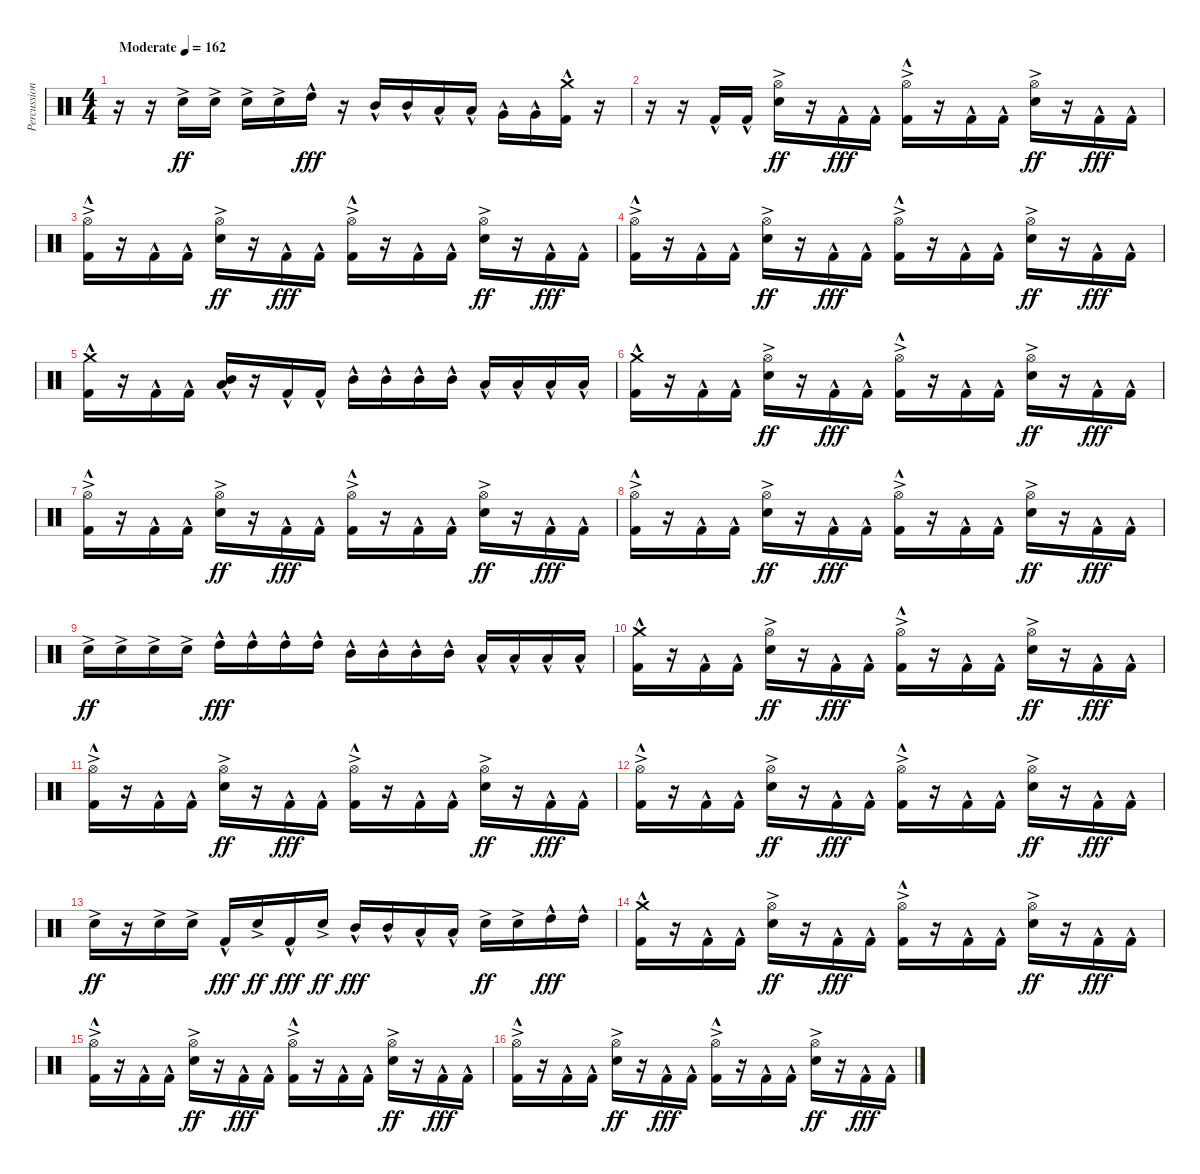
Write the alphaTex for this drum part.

\track ("Percussion" "Percussion") {instrument percussion}
\staff {score}
\articulation defaults
\ts (4 4)
\tempo (162 "Moderate")
\clef neutral
\ks c
r.16{dy ff} r.16 "Snare (hit) 2"{ac}.16 "Snare (hit) 2"{ac}.16 "Snare (hit) 2"{ac}.16 "Snare (hit) 2"{ac}.16 "High Tom (hit)"{hac}.16{dy fff} r.16 "Mid Tom (hit)"{hac}.16 "Mid Tom (hit)"{hac}.16 "Low Tom (hit)"{hac}.16 "Low Tom (hit)"{hac}.16 "Very Low Tom (hit)"{hac}.16 "Very Low Tom (hit)"{hac}.16 ("Crash medium (hit)"{hac} "Kick (hit) 2"{hac}).16 r.16 |
r.16 r.16 "Kick (hit) 2"{hac}.16 "Kick (hit) 2"{hac}.16 ("Hi-Hat (open)"{ac} "Snare (hit) 2"{ac}).16{dy ff} r.16 "Kick (hit) 2"{hac}.16{dy fff} "Kick (hit) 2"{hac}.16 ("Hi-Hat (open)"{ac} "Kick (hit) 2"{hac}).16 r.16 "Kick (hit) 2"{hac}.16 "Kick (hit) 2"{hac}.16 ("Hi-Hat (open)"{ac} "Snare (hit) 2"{ac}).16{dy ff} r.16 "Kick (hit) 2"{hac}.16{dy fff} "Kick (hit) 2"{hac}.16 |
("Hi-Hat (open)"{ac} "Kick (hit) 2"{hac}).16 r.16 "Kick (hit) 2"{hac}.16 "Kick (hit) 2"{hac}.16 ("Hi-Hat (open)"{ac} "Snare (hit) 2"{ac}).16{dy ff} r.16 "Kick (hit) 2"{hac}.16{dy fff} "Kick (hit) 2"{hac}.16 ("Hi-Hat (open)"{ac} "Kick (hit) 2"{hac}).16 r.16 "Kick (hit) 2"{hac}.16 "Kick (hit) 2"{hac}.16 ("Hi-Hat (open)"{ac} "Snare (hit) 2"{ac}).16{dy ff} r.16 "Kick (hit) 2"{hac}.16{dy fff} "Kick (hit) 2"{hac}.16 |
("Hi-Hat (open)"{ac} "Kick (hit) 2"{hac}).16 r.16 "Kick (hit) 2"{hac}.16 "Kick (hit) 2"{hac}.16 ("Hi-Hat (open)"{ac} "Snare (hit) 2"{ac}).16{dy ff} r.16 "Kick (hit) 2"{hac}.16{dy fff} "Kick (hit) 2"{hac}.16 ("Hi-Hat (open)"{ac} "Kick (hit) 2"{hac}).16 r.16 "Kick (hit) 2"{hac}.16 "Kick (hit) 2"{hac}.16 ("Hi-Hat (open)"{ac} "Snare (hit) 2"{ac}).16{dy ff} r.16 "Kick (hit) 2"{hac}.16{dy fff} "Kick (hit) 2"{hac}.16 |
("Crash medium (hit)"{hac} "Kick (hit) 2"{hac}).16 r.16 "Kick (hit) 2"{hac}.16 "Kick (hit) 2"{hac}.16 ("Low Tom (hit)"{hac} "Mid Tom (hit)"{hac}).16 r.16 "Kick (hit) 2"{hac}.16 "Kick (hit) 2"{hac}.16 "Mid Tom (hit)"{hac}.16 "Mid Tom (hit)"{hac}.16 "Mid Tom (hit)"{hac}.16 "Mid Tom (hit)"{hac}.16 "Low Tom (hit)"{hac}.16 "Low Tom (hit)"{hac}.16 "Low Tom (hit)"{hac}.16 "Low Tom (hit)"{hac}.16 |
("Crash medium (hit)"{hac} "Kick (hit) 2"{hac}).16 r.16 "Kick (hit) 2"{hac}.16 "Kick (hit) 2"{hac}.16 ("Hi-Hat (open)"{ac} "Snare (hit) 2"{ac}).16{dy ff} r.16 "Kick (hit) 2"{hac}.16{dy fff} "Kick (hit) 2"{hac}.16 ("Hi-Hat (open)"{ac} "Kick (hit) 2"{hac}).16 r.16 "Kick (hit) 2"{hac}.16 "Kick (hit) 2"{hac}.16 ("Hi-Hat (open)"{ac} "Snare (hit) 2"{ac}).16{dy ff} r.16 "Kick (hit) 2"{hac}.16{dy fff} "Kick (hit) 2"{hac}.16 |
("Hi-Hat (open)"{ac} "Kick (hit) 2"{hac}).16 r.16 "Kick (hit) 2"{hac}.16 "Kick (hit) 2"{hac}.16 ("Hi-Hat (open)"{ac} "Snare (hit) 2"{ac}).16{dy ff} r.16 "Kick (hit) 2"{hac}.16{dy fff} "Kick (hit) 2"{hac}.16 ("Hi-Hat (open)"{ac} "Kick (hit) 2"{hac}).16 r.16 "Kick (hit) 2"{hac}.16 "Kick (hit) 2"{hac}.16 ("Hi-Hat (open)"{ac} "Snare (hit) 2"{ac}).16{dy ff} r.16 "Kick (hit) 2"{hac}.16{dy fff} "Kick (hit) 2"{hac}.16 |
("Hi-Hat (open)"{ac} "Kick (hit) 2"{hac}).16 r.16 "Kick (hit) 2"{hac}.16 "Kick (hit) 2"{hac}.16 ("Hi-Hat (open)"{ac} "Snare (hit) 2"{ac}).16{dy ff} r.16 "Kick (hit) 2"{hac}.16{dy fff} "Kick (hit) 2"{hac}.16 ("Hi-Hat (open)"{ac} "Kick (hit) 2"{hac}).16 r.16 "Kick (hit) 2"{hac}.16 "Kick (hit) 2"{hac}.16 ("Hi-Hat (open)"{ac} "Snare (hit) 2"{ac}).16{dy ff} r.16 "Kick (hit) 2"{hac}.16{dy fff} "Kick (hit) 2"{hac}.16 |
"Snare (hit) 2"{ac}.16{dy ff} "Snare (hit) 2"{ac}.16 "Snare (hit) 2"{ac}.16 "Snare (hit) 2"{ac}.16 "High Tom (hit)"{hac}.16{dy fff} "High Tom (hit)"{hac}.16 "High Tom (hit)"{hac}.16 "High Tom (hit)"{hac}.16 "Mid Tom (hit)"{hac}.16 "Mid Tom (hit)"{hac}.16 "Mid Tom (hit)"{hac}.16 "Mid Tom (hit)"{hac}.16 "Low Tom (hit)"{hac}.16 "Low Tom (hit)"{hac}.16 "Low Tom (hit)"{hac}.16 "Low Tom (hit)"{hac}.16 |
("Crash medium (hit)"{hac} "Kick (hit) 2"{hac}).16 r.16 "Kick (hit) 2"{hac}.16 "Kick (hit) 2"{hac}.16 ("Hi-Hat (open)"{ac} "Snare (hit) 2"{ac}).16{dy ff} r.16 "Kick (hit) 2"{hac}.16{dy fff} "Kick (hit) 2"{hac}.16 ("Hi-Hat (open)"{ac} "Kick (hit) 2"{hac}).16 r.16 "Kick (hit) 2"{hac}.16 "Kick (hit) 2"{hac}.16 ("Hi-Hat (open)"{ac} "Snare (hit) 2"{ac}).16{dy ff} r.16 "Kick (hit) 2"{hac}.16{dy fff} "Kick (hit) 2"{hac}.16 |
("Hi-Hat (open)"{ac} "Kick (hit) 2"{hac}).16 r.16 "Kick (hit) 2"{hac}.16 "Kick (hit) 2"{hac}.16 ("Hi-Hat (open)"{ac} "Snare (hit) 2"{ac}).16{dy ff} r.16 "Kick (hit) 2"{hac}.16{dy fff} "Kick (hit) 2"{hac}.16 ("Hi-Hat (open)"{ac} "Kick (hit) 2"{hac}).16 r.16 "Kick (hit) 2"{hac}.16 "Kick (hit) 2"{hac}.16 ("Hi-Hat (open)"{ac} "Snare (hit) 2"{ac}).16{dy ff} r.16 "Kick (hit) 2"{hac}.16{dy fff} "Kick (hit) 2"{hac}.16 |
("Hi-Hat (open)"{ac} "Kick (hit) 2"{hac}).16 r.16 "Kick (hit) 2"{hac}.16 "Kick (hit) 2"{hac}.16 ("Hi-Hat (open)"{ac} "Snare (hit) 2"{ac}).16{dy ff} r.16 "Kick (hit) 2"{hac}.16{dy fff} "Kick (hit) 2"{hac}.16 ("Hi-Hat (open)"{ac} "Kick (hit) 2"{hac}).16 r.16 "Kick (hit) 2"{hac}.16 "Kick (hit) 2"{hac}.16 ("Hi-Hat (open)"{ac} "Snare (hit) 2"{ac}).16{dy ff} r.16 "Kick (hit) 2"{hac}.16{dy fff} "Kick (hit) 2"{hac}.16 |
"Snare (hit) 2"{ac}.16{dy ff} r.16 "Snare (hit) 2"{ac}.16 "Snare (hit) 2"{ac}.16 "Kick (hit) 2"{hac}.16{dy fff} "Snare (hit) 2"{ac}.16{dy ff} "Kick (hit) 2"{hac}.16{dy fff} "Snare (hit) 2"{ac}.16{dy ff} "Mid Tom (hit)"{hac}.16{dy fff} "Mid Tom (hit)"{hac}.16 "Low Tom (hit)"{hac}.16 "Low Tom (hit)"{hac}.16 "Snare (hit) 2"{ac}.16{dy ff} "Snare (hit) 2"{ac}.16 "High Tom (hit)"{hac}.16{dy fff} "High Tom (hit)"{hac}.16 |
("Crash medium (hit)"{hac} "Kick (hit) 2"{hac}).16 r.16 "Kick (hit) 2"{hac}.16 "Kick (hit) 2"{hac}.16 ("Hi-Hat (open)"{ac} "Snare (hit) 2"{ac}).16{dy ff} r.16 "Kick (hit) 2"{hac}.16{dy fff} "Kick (hit) 2"{hac}.16 ("Hi-Hat (open)"{ac} "Kick (hit) 2"{hac}).16 r.16 "Kick (hit) 2"{hac}.16 "Kick (hit) 2"{hac}.16 ("Hi-Hat (open)"{ac} "Snare (hit) 2"{ac}).16{dy ff} r.16 "Kick (hit) 2"{hac}.16{dy fff} "Kick (hit) 2"{hac}.16 |
("Hi-Hat (open)"{ac} "Kick (hit) 2"{hac}).16 r.16 "Kick (hit) 2"{hac}.16 "Kick (hit) 2"{hac}.16 ("Hi-Hat (open)"{ac} "Snare (hit) 2"{ac}).16{dy ff} r.16 "Kick (hit) 2"{hac}.16{dy fff} "Kick (hit) 2"{hac}.16 ("Hi-Hat (open)"{ac} "Kick (hit) 2"{hac}).16 r.16 "Kick (hit) 2"{hac}.16 "Kick (hit) 2"{hac}.16 ("Hi-Hat (open)"{ac} "Snare (hit) 2"{ac}).16{dy ff} r.16 "Kick (hit) 2"{hac}.16{dy fff} "Kick (hit) 2"{hac}.16 |
("Hi-Hat (open)"{ac} "Kick (hit) 2"{hac}).16 r.16 "Kick (hit) 2"{hac}.16 "Kick (hit) 2"{hac}.16 ("Hi-Hat (open)"{ac} "Snare (hit) 2"{ac}).16{dy ff} r.16 "Kick (hit) 2"{hac}.16{dy fff} "Kick (hit) 2"{hac}.16 ("Hi-Hat (open)"{ac} "Kick (hit) 2"{hac}).16 r.16 "Kick (hit) 2"{hac}.16 "Kick (hit) 2"{hac}.16 ("Hi-Hat (open)"{ac} "Snare (hit) 2"{ac}).16{dy ff} r.16 "Kick (hit) 2"{hac}.16{dy fff} "Kick (hit) 2"{hac}.16
